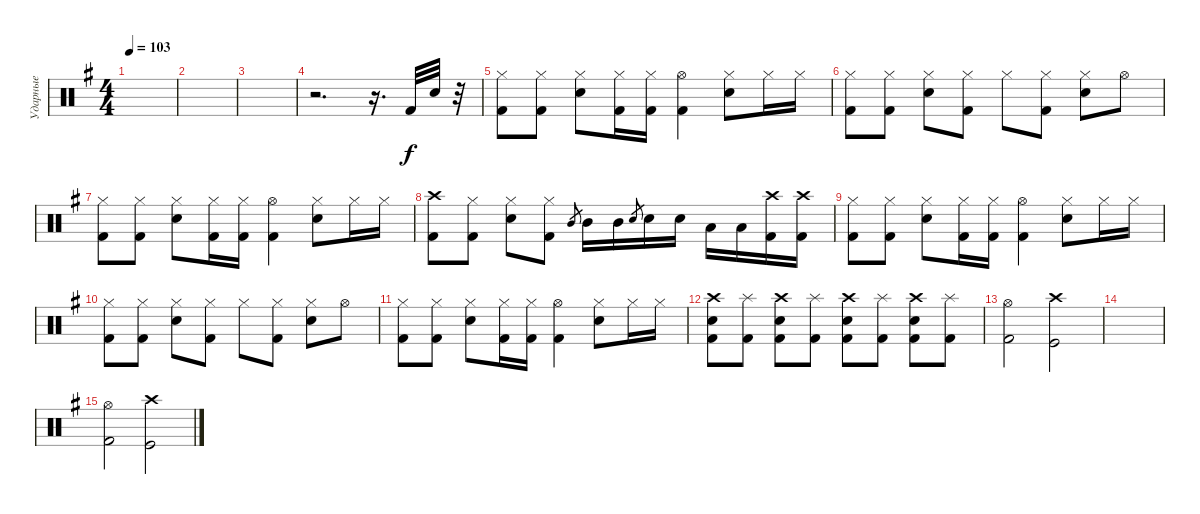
\track ("Ударные" "Ударные") {instrument percussion}
\staff {score}
\articulation defaults
\ts (4 4)
\tempo 103
\clef neutral
\ks eminor
|
|
|
r.2{d} r.16{d} "Kick (hit) 2".32 "Snare (hit) 2".32 r.32 |
("Hi-Hat (closed)" "Kick (hit) 2").8 ("Hi-Hat (closed)" "Kick (hit) 2").8 ("Hi-Hat (closed)" "Snare (hit) 2").8 ("Hi-Hat (closed)" "Kick (hit) 2").16 ("Hi-Hat (closed)" "Kick (hit) 2").16 ("Hi-Hat (open)" "Kick (hit) 2").4 ("Hi-Hat (closed)" "Snare (hit) 2").8 "Hi-Hat (closed)".16 "Hi-Hat (closed)".16 |
("Hi-Hat (closed)" "Kick (hit) 2").8 ("Hi-Hat (closed)" "Kick (hit) 2").8 ("Hi-Hat (closed)" "Snare (hit) 2").8 ("Hi-Hat (closed)" "Kick (hit) 2").8 "Hi-Hat (closed)".8 ("Hi-Hat (closed)" "Kick (hit) 2").8 ("Hi-Hat (closed)" "Snare (hit) 2").8 "Hi-Hat (open)".8 |
("Hi-Hat (closed)" "Kick (hit) 2").8 ("Hi-Hat (closed)" "Kick (hit) 2").8 ("Hi-Hat (closed)" "Snare (hit) 2").8 ("Hi-Hat (closed)" "Kick (hit) 2").16 ("Hi-Hat (closed)" "Kick (hit) 2").16 ("Hi-Hat (open)" "Kick (hit) 2").4 ("Hi-Hat (closed)" "Snare (hit) 2").8 "Hi-Hat (closed)".16 "Hi-Hat (closed)".16 |
("Crash high (hit)" "Kick (hit) 2").8 ("Hi-Hat (closed)" "Kick (hit) 2").8 ("Hi-Hat (closed)" "Snare (hit) 2").8 ("Hi-Hat (closed)" "Kick (hit) 2").8 "Mid Tom (hit)".8{gr} "Mid Tom (hit)".16 "Mid Tom (hit)".16 "Snare (hit) 2".8{gr} "Snare (hit) 2".16 "Snare (hit) 2".16 "Low Tom (hit)".16 "Low Tom (hit)".16 ("Crash high (hit)" "Kick (hit) 2").16 ("Crash high (hit)" "Kick (hit) 2").16 |
("Hi-Hat (closed)" "Kick (hit) 2").8 ("Hi-Hat (closed)" "Kick (hit) 2").8 ("Hi-Hat (closed)" "Snare (hit) 2").8 ("Hi-Hat (closed)" "Kick (hit) 2").16 ("Hi-Hat (closed)" "Kick (hit) 2").16 ("Hi-Hat (open)" "Kick (hit) 2").4 ("Hi-Hat (closed)" "Snare (hit) 2").8 "Hi-Hat (closed)".16 "Hi-Hat (closed)".16 |
("Hi-Hat (closed)" "Kick (hit) 2").8 ("Hi-Hat (closed)" "Kick (hit) 2").8 ("Hi-Hat (closed)" "Snare (hit) 2").8 ("Hi-Hat (closed)" "Kick (hit) 2").8 "Hi-Hat (closed)".8 ("Hi-Hat (closed)" "Kick (hit) 2").8 ("Hi-Hat (closed)" "Snare (hit) 2").8 "Hi-Hat (open)".8 |
("Hi-Hat (closed)" "Kick (hit) 2").8 ("Hi-Hat (closed)" "Kick (hit) 2").8 ("Hi-Hat (closed)" "Snare (hit) 2").8 ("Hi-Hat (closed)" "Kick (hit) 2").16 ("Hi-Hat (closed)" "Kick (hit) 2").16 ("Hi-Hat (open)" "Kick (hit) 2").4 ("Hi-Hat (closed)" "Snare (hit) 2").8 "Hi-Hat (closed)".16 "Hi-Hat (closed)".16 |
("Crash high (hit)" "Snare (hit) 2" "Kick (hit) 2").8 ("Splash (hit)" "Kick (hit) 2").8 ("Crash high (hit)" "Snare (hit) 2" "Kick (hit) 2").8 ("Splash (hit)" "Kick (hit) 2").8 ("Crash high (hit)" "Snare (hit) 2" "Kick (hit) 2").8 ("Splash (hit)" "Kick (hit) 2").8 ("Crash high (hit)" "Snare (hit) 2" "Kick (hit) 2").8 ("Splash (hit)" "Kick (hit) 2").8 |
("Hi-Hat (open)" "Kick (hit) 2").2 ("Crash high (hit)" "Kick (hit)").2 |
|
("Hi-Hat (open)" "Kick (hit) 2").2 ("Crash high (hit)" "Kick (hit)").2
